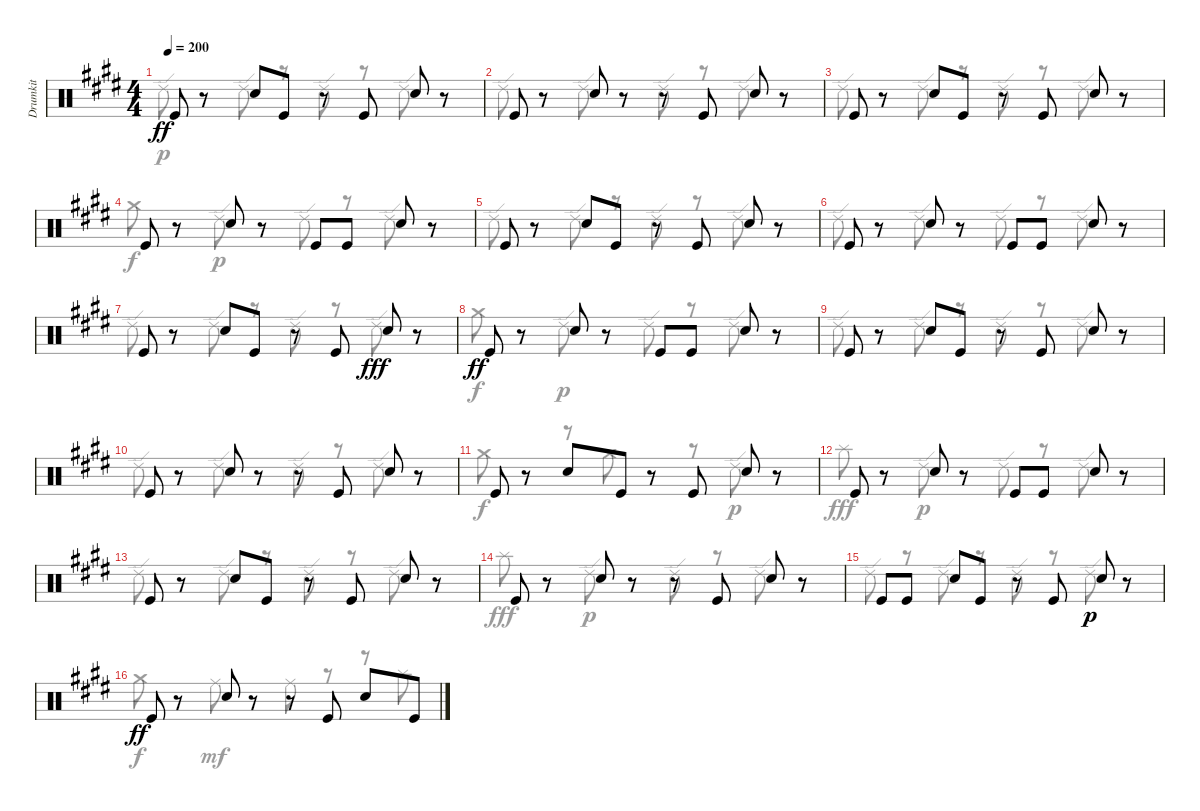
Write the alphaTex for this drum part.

\track ("Drumkit" "Drumkit") {instrument percussion}
\staff {score}
\articulation defaults
\voice
\ts (4 4)
\tempo 200
\clef neutral
\ks c#minor "Kick (hit)".8{dy ff}
r.8 "Snare (hit) 2".8 "Kick (hit)".8 r.8 "Kick (hit)".8 "Snare (hit) 2".8 r.8 |
"Kick (hit)".8 r.8 "Snare (hit) 2".8 r.8 r.8 "Kick (hit)".8 "Snare (hit) 2".8 r.8 |
"Kick (hit)".8 r.8 "Snare (hit) 2".8 "Kick (hit)".8 r.8 "Kick (hit)".8 "Snare (hit) 2".8 r.8 |
"Kick (hit)".8 r.8 "Snare (hit) 2".8 r.8 "Kick (hit)".8 "Kick (hit)".8 "Snare (hit) 2".8 r.8 |
"Kick (hit)".8 r.8 "Snare (hit) 2".8 "Kick (hit)".8 r.8 "Kick (hit)".8 "Snare (hit) 2".8 r.8 |
"Kick (hit)".8 r.8 "Snare (hit) 2".8 r.8 "Kick (hit)".8 "Kick (hit)".8 "Snare (hit) 2".8 r.8 |
"Kick (hit)".8 r.8 "Snare (hit) 2".8 "Kick (hit)".8 r.8 "Kick (hit)".8 "Snare (hit) 2".8{dy fff} r.8 |
"Kick (hit)".8{dy ff} r.8 "Snare (hit) 2".8 r.8 "Kick (hit)".8 "Kick (hit)".8 "Snare (hit) 2".8 r.8 |
"Kick (hit)".8 r.8 "Snare (hit) 2".8 "Kick (hit)".8 r.8 "Kick (hit)".8 "Snare (hit) 2".8 r.8 |
"Kick (hit)".8 r.8 "Snare (hit) 2".8 r.8 r.8 "Kick (hit)".8 "Snare (hit) 2".8 r.8 |
"Kick (hit)".8 r.8 "Snare (hit) 2".8 "Kick (hit)".8 r.8 "Kick (hit)".8 "Snare (hit) 2".8 r.8 |
"Kick (hit)".8 r.8 "Snare (hit) 2".8 r.8 "Kick (hit)".8 "Kick (hit)".8 "Snare (hit) 2".8 r.8 |
"Kick (hit)".8 r.8 "Snare (hit) 2".8 "Kick (hit)".8 r.8 "Kick (hit)".8 "Snare (hit) 2".8 r.8 |
"Kick (hit)".8 r.8 "Snare (hit) 2".8 r.8 r.8 "Kick (hit)".8 "Snare (hit) 2".8 r.8 |
"Kick (hit)".8 "Kick (hit)".8 "Snare (hit) 2".8 "Kick (hit)".8 r.8 "Kick (hit)".8 "Snare (hit) 2".8{dy p} r.8 |
"Kick (hit)".8{dy ff} r.8 "Snare (hit) 2".8 r.8 r.8 "Kick (hit)".8 "Snare (hit) 2".8 "Kick (hit)".8
\voice
\clef neutral
\ottava regular
\simile none
\ks c#minor "Ride (edge) 2".8{dy p}
r.8 "Ride (edge) 2".8 r.8 "Ride (edge) 2".8 r.8 "Ride (edge) 2".8 r.8 |
"Ride (edge) 2".8 r.8 "Ride (edge) 2".8 r.8 "Ride (edge) 2".8 r.8 "Ride (edge) 2".8 r.8 |
"Ride (edge) 2".8 r.8 "Ride (edge) 2".8 r.8 "Ride (edge) 2".8 r.8 "Ride (edge) 2".8 r.8 |
"Crash medium (hit)".8{dy f} r.8 "Ride (edge) 2".8{dy p} r.8 "Ride (edge) 2".8 r.8 "Ride (edge) 2".8 r.8 |
"Ride (edge) 2".8 r.8 "Ride (edge) 2".8 r.8 "Ride (edge) 2".8 r.8 "Ride (edge) 2".8 r.8 |
"Ride (edge) 2".8 r.8 "Ride (edge) 2".8 r.8 "Ride (edge) 2".8 r.8 "Ride (edge) 2".8 r.8 |
"Ride (edge) 2".8 r.8 "Ride (edge) 2".8 r.8 "Ride (edge) 2".8 r.8 "Ride (edge) 2".8 r.8 |
"Crash medium (hit)".8{dy f} r.8 "Ride (edge) 2".8{dy p} r.8 "Ride (edge) 2".8 r.8 "Ride (edge) 2".8 r.8 |
"Ride (edge) 2".8 r.8 "Ride (edge) 2".8 r.8 "Ride (edge) 2".8 r.8 "Ride (edge) 2".8 r.8 |
"Ride (edge) 2".8 r.8 "Ride (edge) 2".8 r.8 "Ride (edge) 2".8 r.8 "Ride (edge) 2".8 r.8 |
"Crash medium (hit)".8{dy f} r.8 r.8 "Crash medium (hit)".8 r.8 r.8 "Ride (edge) 2".8{dy p} r.8 |
"Splash (hit)".8{dy fff} r.8 "Ride (edge) 2".8{dy p} r.8 "Ride (edge) 2".8 r.8 "Ride (edge) 2".8 r.8 |
"Ride (edge) 2".8 r.8 "Ride (edge) 2".8 r.8 "Ride (edge) 2".8 r.8 "Ride (edge) 2".8 r.8 |
"Splash (hit)".8{dy fff} r.8 "Ride (edge) 2".8{dy p} r.8 "Ride (edge) 2".8 r.8 "Ride (edge) 2".8 r.8 |
"Ride (edge) 2".8 r.8 "Ride (edge) 2".8 r.8 "Ride (edge) 2".8 r.8 "Ride (edge) 2".8 r.8 |
"Crash medium (hit)".8{dy f} r.8 "Ride (middle)".8{dy mf} r.8 "Ride (middle)".8 r.8 r.8 "Splash (hit)".8
